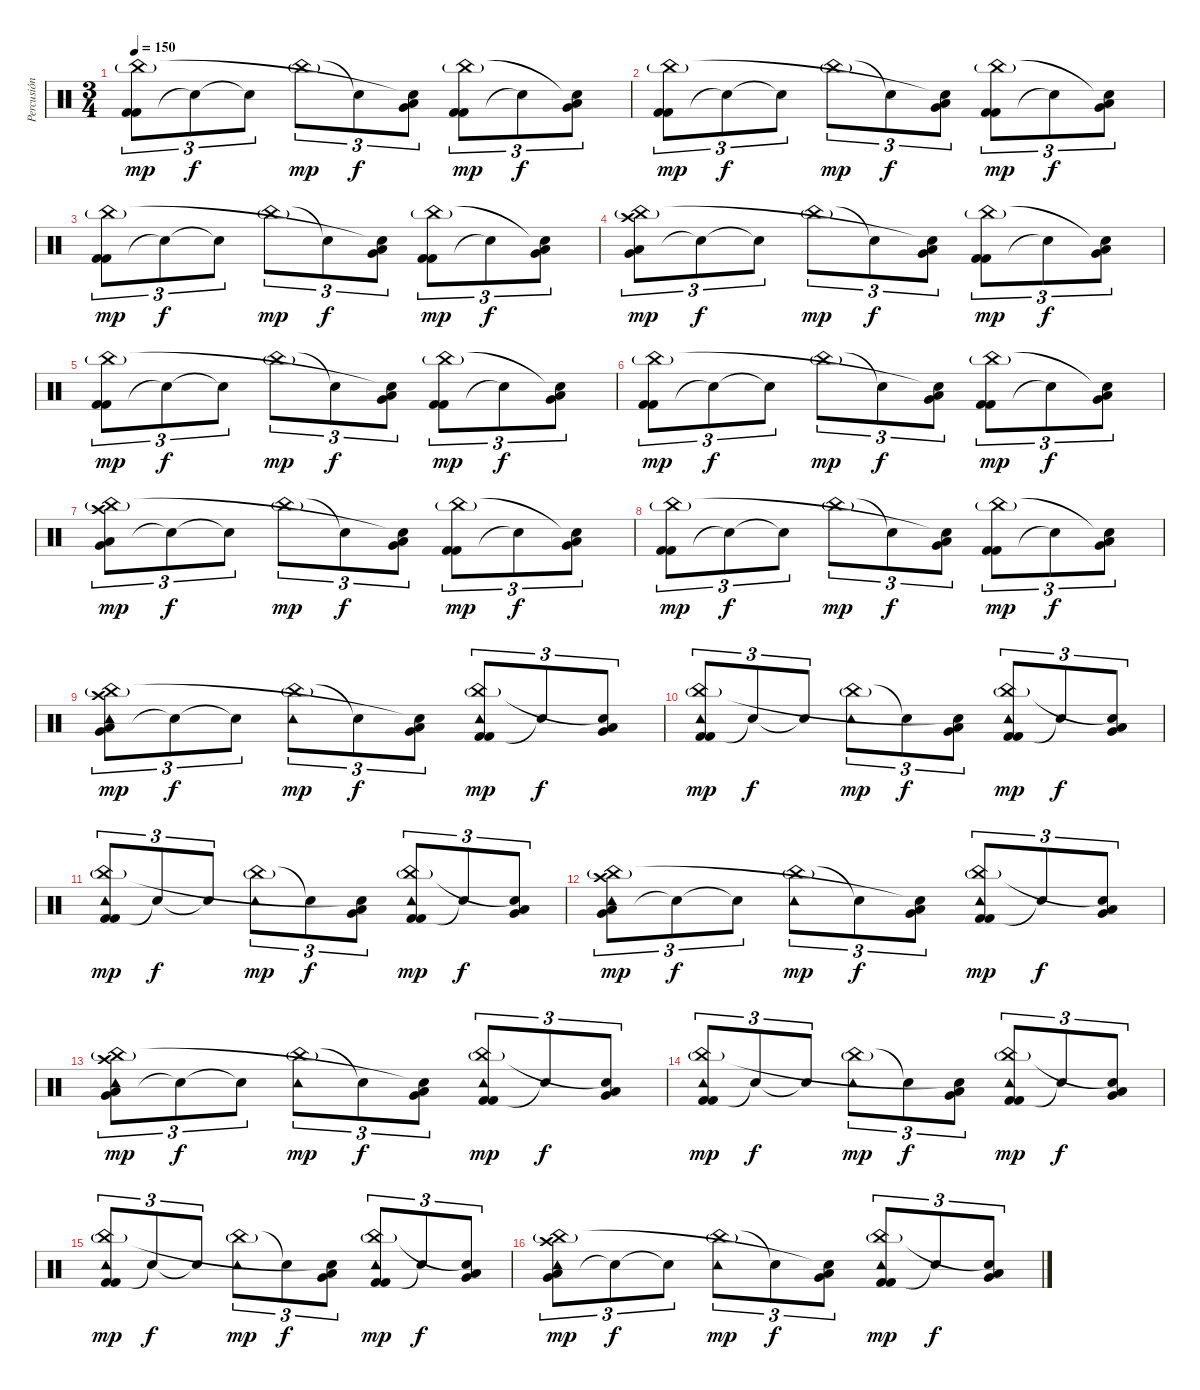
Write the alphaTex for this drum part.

\track ("Percusión" "Percusión") {instrument percussion}
\staff {score}
\articulation defaults
\ts (3 4)
\tempo 150
\clef neutral
\ks c
("Kick (hit) 2" "Kick (hit) 2" "China (hit)"{g}).8{tu (3 2) dy mp} "Snare (hit)"{t}.8{tu (3 2) dy f} "Snare (hit)"{t}.8{tu (3 2)} "China (hit)"{g}.8{tu (3 2) dy mp} "Snare (hit)"{t}.8{tu (3 2) dy f} ("Low Floor Tom (hit)" "Very Low Tom (hit)" "Snare (hit)"{t}).8{tu (3 2)} ("Kick (hit) 2" "Kick (hit) 2" "China (hit)"{g}).8{tu (3 2) dy mp} "Snare (hit)"{t}.8{tu (3 2) dy f} ("Low Floor Tom (hit)" "Very Low Tom (hit)" "Snare (hit)"{t}).8{tu (3 2)} |
("Kick (hit) 2" "Kick (hit) 2" "China (hit)"{g}).8{tu (3 2) dy mp} "Snare (hit)"{t}.8{tu (3 2) dy f} "Snare (hit)"{t}.8{tu (3 2)} "China (hit)"{g}.8{tu (3 2) dy mp} "Snare (hit)"{t}.8{tu (3 2) dy f} ("Low Floor Tom (hit)" "Very Low Tom (hit)" "Snare (hit)"{t}).8{tu (3 2)} ("Kick (hit) 2" "Kick (hit) 2" "China (hit)"{g}).8{tu (3 2) dy mp} "Snare (hit)"{t}.8{tu (3 2) dy f} ("Low Floor Tom (hit)" "Very Low Tom (hit)" "Snare (hit)"{t}).8{tu (3 2)} |
("Kick (hit) 2" "Kick (hit) 2" "China (hit)"{g}).8{tu (3 2) dy mp} "Snare (hit)"{t}.8{tu (3 2) dy f} "Snare (hit)"{t}.8{tu (3 2)} "China (hit)"{g}.8{tu (3 2) dy mp} "Snare (hit)"{t}.8{tu (3 2) dy f} ("Low Floor Tom (hit)" "Very Low Tom (hit)" "Snare (hit)"{t}).8{tu (3 2)} ("Kick (hit) 2" "Kick (hit) 2" "China (hit)"{g}).8{tu (3 2) dy mp} "Snare (hit)"{t}.8{tu (3 2) dy f} ("Low Floor Tom (hit)" "Very Low Tom (hit)" "Snare (hit)"{t}).8{tu (3 2)} |
("Low Floor Tom (hit)" "Very Low Tom (hit)" "China (hit)"{g} "Crash high (hit)").8{tu (3 2) dy mp} "Snare (hit)"{t}.8{tu (3 2) dy f} "Snare (hit)"{t}.8{tu (3 2)} "China (hit)"{g}.8{tu (3 2) dy mp} "Snare (hit)"{t}.8{tu (3 2) dy f} ("Low Floor Tom (hit)" "Very Low Tom (hit)" "Snare (hit)"{t}).8{tu (3 2)} ("Kick (hit) 2" "Kick (hit) 2" "China (hit)"{g}).8{tu (3 2) dy mp} "Snare (hit)"{t}.8{tu (3 2) dy f} ("Low Floor Tom (hit)" "Very Low Tom (hit)" "Snare (hit)"{t}).8{tu (3 2)} |
("Kick (hit) 2" "Kick (hit) 2" "China (hit)"{g}).8{tu (3 2) dy mp} "Snare (hit)"{t}.8{tu (3 2) dy f} "Snare (hit)"{t}.8{tu (3 2)} "China (hit)"{g}.8{tu (3 2) dy mp} "Snare (hit)"{t}.8{tu (3 2) dy f} ("Low Floor Tom (hit)" "Very Low Tom (hit)" "Snare (hit)"{t}).8{tu (3 2)} ("Kick (hit) 2" "Kick (hit) 2" "China (hit)"{g}).8{tu (3 2) dy mp} "Snare (hit)"{t}.8{tu (3 2) dy f} ("Low Floor Tom (hit)" "Very Low Tom (hit)" "Snare (hit)"{t}).8{tu (3 2)} |
("Kick (hit) 2" "Kick (hit) 2" "China (hit)"{g}).8{tu (3 2) dy mp} "Snare (hit)"{t}.8{tu (3 2) dy f} "Snare (hit)"{t}.8{tu (3 2)} "China (hit)"{g}.8{tu (3 2) dy mp} "Snare (hit)"{t}.8{tu (3 2) dy f} ("Low Floor Tom (hit)" "Very Low Tom (hit)" "Snare (hit)"{t}).8{tu (3 2)} ("Kick (hit) 2" "Kick (hit) 2" "China (hit)"{g}).8{tu (3 2) dy mp} "Snare (hit)"{t}.8{tu (3 2) dy f} ("Low Floor Tom (hit)" "Very Low Tom (hit)" "Snare (hit)"{t}).8{tu (3 2)} |
("Low Floor Tom (hit)" "Very Low Tom (hit)" "China (hit)"{g} "Crash high (hit)").8{tu (3 2) dy mp} "Snare (hit)"{t}.8{tu (3 2) dy f} "Snare (hit)"{t}.8{tu (3 2)} "China (hit)"{g}.8{tu (3 2) dy mp} "Snare (hit)"{t}.8{tu (3 2) dy f} ("Low Floor Tom (hit)" "Very Low Tom (hit)" "Snare (hit)"{t}).8{tu (3 2)} ("Kick (hit) 2" "Kick (hit) 2" "China (hit)"{g}).8{tu (3 2) dy mp} "Snare (hit)"{t}.8{tu (3 2) dy f} ("Low Floor Tom (hit)" "Very Low Tom (hit)" "Snare (hit)"{t}).8{tu (3 2)} |
("Kick (hit) 2" "Kick (hit) 2" "China (hit)"{g}).8{tu (3 2) dy mp} "Snare (hit)"{t}.8{tu (3 2) dy f} "Snare (hit)"{t}.8{tu (3 2)} "China (hit)"{g}.8{tu (3 2) dy mp} "Snare (hit)"{t}.8{tu (3 2) dy f} ("Low Floor Tom (hit)" "Very Low Tom (hit)" "Snare (hit)"{t}).8{tu (3 2)} ("Kick (hit) 2" "Kick (hit) 2" "China (hit)"{g}).8{tu (3 2) dy mp} "Snare (hit)"{t}.8{tu (3 2) dy f} ("Low Floor Tom (hit)" "Very Low Tom (hit)" "Snare (hit)"{t}).8{tu (3 2)} |
("Low Floor Tom (hit)" "Very Low Tom (hit)" "China (hit)"{g} "Crash high (hit)" "Tambourine (hit)").8{tu (3 2) dy mp} "Snare (hit)"{t}.8{tu (3 2) dy f} "Snare (hit)"{t}.8{tu (3 2)} ("China (hit)"{g} "Tambourine (hit)").8{tu (3 2) dy mp} "Snare (hit)"{t}.8{tu (3 2) dy f} ("Low Floor Tom (hit)" "Very Low Tom (hit)" "Snare (hit)"{t}).8{tu (3 2)} ("Kick (hit) 2" "Kick (hit) 2" "China (hit)"{g} "Tambourine (hit)").8{tu (3 2) dy mp} "Snare (hit)"{t}.8{tu (3 2) dy f} ("Low Floor Tom (hit)" "Very Low Tom (hit)" "Snare (hit)"{t}).8{tu (3 2)} |
("Kick (hit) 2" "Kick (hit) 2" "China (hit)"{g} "Tambourine (hit)").8{tu (3 2) dy mp} "Snare (hit)"{t}.8{tu (3 2) dy f} "Snare (hit)"{t}.8{tu (3 2)} ("China (hit)"{g} "Tambourine (hit)").8{tu (3 2) dy mp} "Snare (hit)"{t}.8{tu (3 2) dy f} ("Low Floor Tom (hit)" "Very Low Tom (hit)" "Snare (hit)"{t}).8{tu (3 2)} ("Kick (hit) 2" "Kick (hit) 2" "China (hit)"{g} "Tambourine (hit)").8{tu (3 2) dy mp} "Snare (hit)"{t}.8{tu (3 2) dy f} ("Low Floor Tom (hit)" "Very Low Tom (hit)" "Snare (hit)"{t}).8{tu (3 2)} |
("Kick (hit) 2" "Kick (hit) 2" "China (hit)"{g} "Tambourine (hit)").8{tu (3 2) dy mp} "Snare (hit)"{t}.8{tu (3 2) dy f} "Snare (hit)"{t}.8{tu (3 2)} ("China (hit)"{g} "Tambourine (hit)").8{tu (3 2) dy mp} "Snare (hit)"{t}.8{tu (3 2) dy f} ("Low Floor Tom (hit)" "Very Low Tom (hit)" "Snare (hit)"{t}).8{tu (3 2)} ("Kick (hit) 2" "Kick (hit) 2" "China (hit)"{g} "Tambourine (hit)").8{tu (3 2) dy mp} "Snare (hit)"{t}.8{tu (3 2) dy f} ("Low Floor Tom (hit)" "Very Low Tom (hit)" "Snare (hit)"{t}).8{tu (3 2)} |
("Low Floor Tom (hit)" "Very Low Tom (hit)" "China (hit)"{g} "Crash high (hit)" "Tambourine (hit)").8{tu (3 2) dy mp} "Snare (hit)"{t}.8{tu (3 2) dy f} "Snare (hit)"{t}.8{tu (3 2)} ("China (hit)"{g} "Tambourine (hit)").8{tu (3 2) dy mp} "Snare (hit)"{t}.8{tu (3 2) dy f} ("Low Floor Tom (hit)" "Very Low Tom (hit)" "Snare (hit)"{t}).8{tu (3 2)} ("Kick (hit) 2" "Kick (hit) 2" "China (hit)"{g} "Tambourine (hit)").8{tu (3 2) dy mp} "Snare (hit)"{t}.8{tu (3 2) dy f} ("Low Floor Tom (hit)" "Very Low Tom (hit)" "Snare (hit)"{t}).8{tu (3 2)} |
("Low Floor Tom (hit)" "Very Low Tom (hit)" "China (hit)"{g} "Crash high (hit)" "Tambourine (hit)").8{tu (3 2) dy mp} "Snare (hit)"{t}.8{tu (3 2) dy f} "Snare (hit)"{t}.8{tu (3 2)} ("China (hit)"{g} "Tambourine (hit)").8{tu (3 2) dy mp} "Snare (hit)"{t}.8{tu (3 2) dy f} ("Low Floor Tom (hit)" "Very Low Tom (hit)" "Snare (hit)"{t}).8{tu (3 2)} ("Kick (hit) 2" "Kick (hit) 2" "China (hit)"{g} "Tambourine (hit)").8{tu (3 2) dy mp} "Snare (hit)"{t}.8{tu (3 2) dy f} ("Low Floor Tom (hit)" "Very Low Tom (hit)" "Snare (hit)"{t}).8{tu (3 2)} |
("Kick (hit) 2" "Kick (hit) 2" "China (hit)"{g} "Tambourine (hit)").8{tu (3 2) dy mp} "Snare (hit)"{t}.8{tu (3 2) dy f} "Snare (hit)"{t}.8{tu (3 2)} ("China (hit)"{g} "Tambourine (hit)").8{tu (3 2) dy mp} "Snare (hit)"{t}.8{tu (3 2) dy f} ("Low Floor Tom (hit)" "Very Low Tom (hit)" "Snare (hit)"{t}).8{tu (3 2)} ("Kick (hit) 2" "Kick (hit) 2" "China (hit)"{g} "Tambourine (hit)").8{tu (3 2) dy mp} "Snare (hit)"{t}.8{tu (3 2) dy f} ("Low Floor Tom (hit)" "Very Low Tom (hit)" "Snare (hit)"{t}).8{tu (3 2)} |
("Kick (hit) 2" "Kick (hit) 2" "China (hit)"{g} "Tambourine (hit)").8{tu (3 2) dy mp} "Snare (hit)"{t}.8{tu (3 2) dy f} "Snare (hit)"{t}.8{tu (3 2)} ("China (hit)"{g} "Tambourine (hit)").8{tu (3 2) dy mp} "Snare (hit)"{t}.8{tu (3 2) dy f} ("Low Floor Tom (hit)" "Very Low Tom (hit)" "Snare (hit)"{t}).8{tu (3 2)} ("Kick (hit) 2" "Kick (hit) 2" "China (hit)"{g} "Tambourine (hit)").8{tu (3 2) dy mp} "Snare (hit)"{t}.8{tu (3 2) dy f} ("Low Floor Tom (hit)" "Very Low Tom (hit)" "Snare (hit)"{t}).8{tu (3 2)} |
("Low Floor Tom (hit)" "Very Low Tom (hit)" "China (hit)"{g} "Crash high (hit)" "Tambourine (hit)").8{tu (3 2) dy mp} "Snare (hit)"{t}.8{tu (3 2) dy f} "Snare (hit)"{t}.8{tu (3 2)} ("China (hit)"{g} "Tambourine (hit)").8{tu (3 2) dy mp} "Snare (hit)"{t}.8{tu (3 2) dy f} ("Low Floor Tom (hit)" "Very Low Tom (hit)" "Snare (hit)"{t}).8{tu (3 2)} ("Kick (hit) 2" "Kick (hit) 2" "China (hit)"{g} "Tambourine (hit)").8{tu (3 2) dy mp} "Snare (hit)"{t}.8{tu (3 2) dy f} ("Low Floor Tom (hit)" "Very Low Tom (hit)" "Snare (hit)"{t}).8{tu (3 2)}
